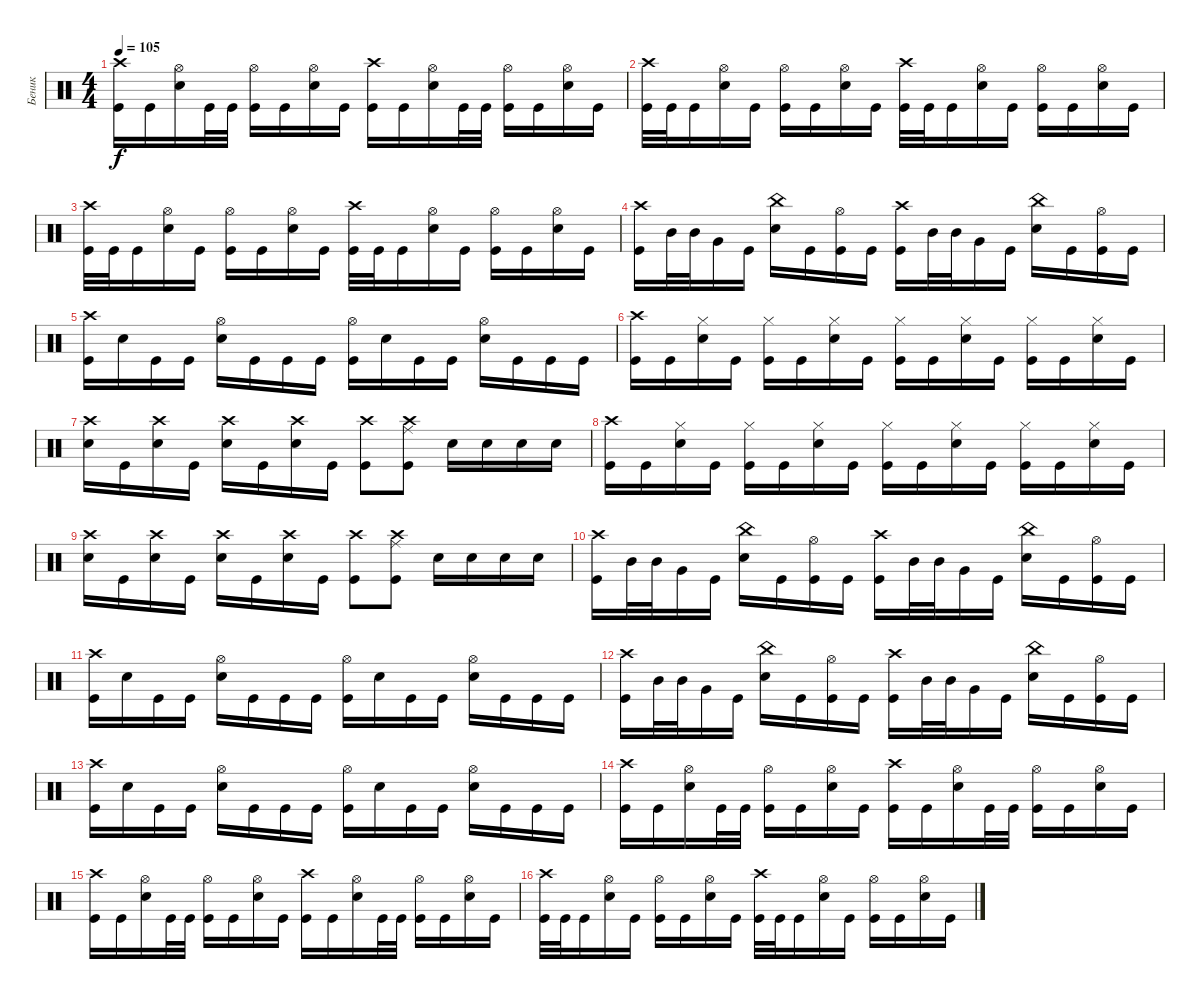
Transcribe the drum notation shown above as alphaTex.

\track ("Беник" "Беник") {instrument percussion}
\staff {score}
\articulation defaults
\ts (4 4)
\tempo 105
\clef neutral
\ks c
("Kick (hit)" "Crash high (hit)").16{dy f} "Kick (hit)".16 ("Snare (hit) 2" "Hi-Hat (open)").16 "Kick (hit)".32 "Kick (hit)".32 ("Kick (hit)" "Hi-Hat (open)").16 "Kick (hit)".16 ("Snare (hit) 2" "Hi-Hat (open)").16 "Kick (hit)".16 ("Kick (hit)" "Crash high (hit)").16 "Kick (hit)".16 ("Snare (hit) 2" "Hi-Hat (open)").16 "Kick (hit)".32 "Kick (hit)".32 ("Kick (hit)" "Hi-Hat (open)").16 "Kick (hit)".16 ("Snare (hit) 2" "Hi-Hat (open)").16 "Kick (hit)".16 |
("Kick (hit)" "Crash high (hit)").32 "Kick (hit)".32 "Kick (hit)".16 ("Snare (hit) 2" "Hi-Hat (open)").16 "Kick (hit)".16 ("Kick (hit)" "Hi-Hat (open)").16 "Kick (hit)".16 ("Snare (hit) 2" "Hi-Hat (open)").16 "Kick (hit)".16 ("Kick (hit)" "Crash high (hit)").32 "Kick (hit)".32 "Kick (hit)".16 ("Snare (hit) 2" "Hi-Hat (open)").16 "Kick (hit)".16 ("Kick (hit)" "Hi-Hat (open)").16 "Kick (hit)".16 ("Snare (hit) 2" "Hi-Hat (open)").16 "Kick (hit)".16 |
("Kick (hit)" "Crash high (hit)").32 "Kick (hit)".32 "Kick (hit)".16 ("Snare (hit) 2" "Hi-Hat (open)").16 "Kick (hit)".16 ("Kick (hit)" "Hi-Hat (open)").16 "Kick (hit)".16 ("Snare (hit) 2" "Hi-Hat (open)").16 "Kick (hit)".16 ("Kick (hit)" "Crash high (hit)").32 "Kick (hit)".32 "Kick (hit)".16 ("Snare (hit) 2" "Hi-Hat (open)").16 "Kick (hit)".16 ("Kick (hit)" "Hi-Hat (open)").16 "Kick (hit)".16 ("Snare (hit) 2" "Hi-Hat (open)").16 "Kick (hit)".16 |
("Kick (hit)" "Crash high (hit)").16 "Mid Tom (hit)".32 "Mid Tom (hit)".32 "Very Low Tom (hit)".16 "Kick (hit)".16 ("Snare (hit) 2" "China (hit)").16 "Kick (hit)".16 ("Kick (hit)" "Hi-Hat (open)").16 "Kick (hit)".16 ("Kick (hit)" "Crash high (hit)").16 "Mid Tom (hit)".32 "Mid Tom (hit)".32 "Very Low Tom (hit)".16 "Kick (hit)".16 ("Snare (hit) 2" "China (hit)").16 "Kick (hit)".16 ("Kick (hit)" "Hi-Hat (open)").16 "Kick (hit)".16 |
("Kick (hit)" "Crash high (hit)").16 "Snare (hit) 2".16 "Kick (hit)".16 "Kick (hit)".16 ("Snare (hit) 2" "Hi-Hat (open)").16 "Kick (hit)".16 "Kick (hit)".16 "Kick (hit)".16 ("Kick (hit)" "Hi-Hat (open)").16 "Snare (hit) 2".16 "Kick (hit)".16 "Kick (hit)".16 ("Snare (hit) 2" "Hi-Hat (open)").16 "Kick (hit)".16 "Kick (hit)".16 "Kick (hit)".16 |
("Crash high (hit)" "Kick (hit)").16 "Kick (hit)".16 ("Snare (hit) 2" "Hi-Hat (closed)").16 "Kick (hit)".16 ("Kick (hit)" "Hi-Hat (closed)").16 "Kick (hit)".16 ("Snare (hit) 2" "Hi-Hat (closed)").16 "Kick (hit)".16 ("Kick (hit)" "Hi-Hat (closed)").16 "Kick (hit)".16 ("Snare (hit) 2" "Hi-Hat (closed)").16 "Kick (hit)".16 ("Kick (hit)" "Hi-Hat (closed)").16 "Kick (hit)".16 ("Snare (hit) 2" "Hi-Hat (closed)").16 "Kick (hit)".16 |
("Snare (hit) 2" "Crash high (hit)").16 "Kick (hit)".16 ("Snare (hit) 2" "Crash high (hit)").16 "Kick (hit)".16 ("Snare (hit) 2" "Crash high (hit)").16 "Kick (hit)".16 ("Snare (hit) 2" "Crash high (hit)").16 "Kick (hit)".16 ("Kick (hit)" "Crash high (hit)").8 ("Crash high (hit)" "Ride (middle)" "Kick (hit)").8 "Snare (hit) 2".16 "Snare (hit) 2".16 "Snare (hit) 2".16 "Snare (hit) 2".16 |
("Crash high (hit)" "Kick (hit)").16 "Kick (hit)".16 ("Snare (hit) 2" "Hi-Hat (closed)").16 "Kick (hit)".16 ("Kick (hit)" "Hi-Hat (closed)").16 "Kick (hit)".16 ("Snare (hit) 2" "Hi-Hat (closed)").16 "Kick (hit)".16 ("Kick (hit)" "Hi-Hat (closed)").16 "Kick (hit)".16 ("Snare (hit) 2" "Hi-Hat (closed)").16 "Kick (hit)".16 ("Kick (hit)" "Hi-Hat (closed)").16 "Kick (hit)".16 ("Snare (hit) 2" "Hi-Hat (closed)").16 "Kick (hit)".16 |
("Snare (hit) 2" "Crash high (hit)").16 "Kick (hit)".16 ("Snare (hit) 2" "Crash high (hit)").16 "Kick (hit)".16 ("Snare (hit) 2" "Crash high (hit)").16 "Kick (hit)".16 ("Snare (hit) 2" "Crash high (hit)").16 "Kick (hit)".16 ("Kick (hit)" "Crash high (hit)").8 ("Crash high (hit)" "Ride (middle)" "Kick (hit)").8 "Snare (hit) 2".16 "Snare (hit) 2".16 "Snare (hit) 2".16 "Snare (hit) 2".16 |
("Kick (hit)" "Crash high (hit)").16 "Mid Tom (hit)".32 "Mid Tom (hit)".32 "Very Low Tom (hit)".16 "Kick (hit)".16 ("Snare (hit) 2" "China (hit)").16 "Kick (hit)".16 ("Kick (hit)" "Hi-Hat (open)").16 "Kick (hit)".16 ("Kick (hit)" "Crash high (hit)").16 "Mid Tom (hit)".32 "Mid Tom (hit)".32 "Very Low Tom (hit)".16 "Kick (hit)".16 ("Snare (hit) 2" "China (hit)").16 "Kick (hit)".16 ("Kick (hit)" "Hi-Hat (open)").16 "Kick (hit)".16 |
("Kick (hit)" "Crash high (hit)").16 "Snare (hit) 2".16 "Kick (hit)".16 "Kick (hit)".16 ("Snare (hit) 2" "Hi-Hat (open)").16 "Kick (hit)".16 "Kick (hit)".16 "Kick (hit)".16 ("Kick (hit)" "Hi-Hat (open)").16 "Snare (hit) 2".16 "Kick (hit)".16 "Kick (hit)".16 ("Snare (hit) 2" "Hi-Hat (open)").16 "Kick (hit)".16 "Kick (hit)".16 "Kick (hit)".16 |
("Kick (hit)" "Crash high (hit)").16 "Mid Tom (hit)".32 "Mid Tom (hit)".32 "Very Low Tom (hit)".16 "Kick (hit)".16 ("Snare (hit) 2" "China (hit)").16 "Kick (hit)".16 ("Kick (hit)" "Hi-Hat (open)").16 "Kick (hit)".16 ("Kick (hit)" "Crash high (hit)").16 "Mid Tom (hit)".32 "Mid Tom (hit)".32 "Very Low Tom (hit)".16 "Kick (hit)".16 ("Snare (hit) 2" "China (hit)").16 "Kick (hit)".16 ("Kick (hit)" "Hi-Hat (open)").16 "Kick (hit)".16 |
("Kick (hit)" "Crash high (hit)").16 "Snare (hit) 2".16 "Kick (hit)".16 "Kick (hit)".16 ("Snare (hit) 2" "Hi-Hat (open)").16 "Kick (hit)".16 "Kick (hit)".16 "Kick (hit)".16 ("Kick (hit)" "Hi-Hat (open)").16 "Snare (hit) 2".16 "Kick (hit)".16 "Kick (hit)".16 ("Snare (hit) 2" "Hi-Hat (open)").16 "Kick (hit)".16 "Kick (hit)".16 "Kick (hit)".16 |
("Kick (hit)" "Crash high (hit)").16 "Kick (hit)".16 ("Snare (hit) 2" "Hi-Hat (open)").16 "Kick (hit)".32 "Kick (hit)".32 ("Kick (hit)" "Hi-Hat (open)").16 "Kick (hit)".16 ("Snare (hit) 2" "Hi-Hat (open)").16 "Kick (hit)".16 ("Kick (hit)" "Crash high (hit)").16 "Kick (hit)".16 ("Snare (hit) 2" "Hi-Hat (open)").16 "Kick (hit)".32 "Kick (hit)".32 ("Kick (hit)" "Hi-Hat (open)").16 "Kick (hit)".16 ("Snare (hit) 2" "Hi-Hat (open)").16 "Kick (hit)".16 |
("Kick (hit)" "Crash high (hit)").16 "Kick (hit)".16 ("Snare (hit) 2" "Hi-Hat (open)").16 "Kick (hit)".32 "Kick (hit)".32 ("Kick (hit)" "Hi-Hat (open)").16 "Kick (hit)".16 ("Snare (hit) 2" "Hi-Hat (open)").16 "Kick (hit)".16 ("Kick (hit)" "Crash high (hit)").16 "Kick (hit)".16 ("Snare (hit) 2" "Hi-Hat (open)").16 "Kick (hit)".32 "Kick (hit)".32 ("Kick (hit)" "Hi-Hat (open)").16 "Kick (hit)".16 ("Snare (hit) 2" "Hi-Hat (open)").16 "Kick (hit)".16 |
("Kick (hit)" "Crash high (hit)").32 "Kick (hit)".32 "Kick (hit)".16 ("Snare (hit) 2" "Hi-Hat (open)").16 "Kick (hit)".16 ("Kick (hit)" "Hi-Hat (open)").16 "Kick (hit)".16 ("Snare (hit) 2" "Hi-Hat (open)").16 "Kick (hit)".16 ("Kick (hit)" "Crash high (hit)").32 "Kick (hit)".32 "Kick (hit)".16 ("Snare (hit) 2" "Hi-Hat (open)").16 "Kick (hit)".16 ("Kick (hit)" "Hi-Hat (open)").16 "Kick (hit)".16 ("Snare (hit) 2" "Hi-Hat (open)").16 "Kick (hit)".16
